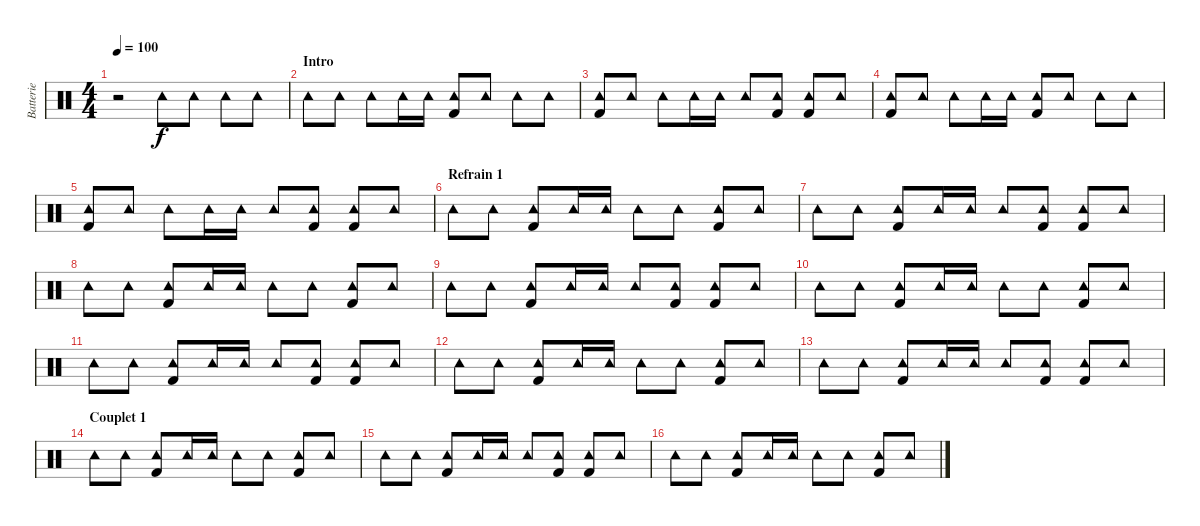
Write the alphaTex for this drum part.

\track ("Batterie" "Batterie") {instrument percussion}
\staff {score}
\articulation defaults
\ts (4 4)
\tempo 100
\clef neutral
\ks c
r.2{dy f} "Tambourine (hit)".8 "Tambourine (hit)".8 "Tambourine (hit)".8 "Tambourine (hit)".8 |
\section ("" "Intro")
"Tambourine (hit)".8 "Tambourine (hit)".8 "Tambourine (hit)".8 "Tambourine (hit)".16 "Tambourine (hit)".16 ("Tambourine (hit)" "Kick (hit) 2").8 "Tambourine (hit)".8 "Tambourine (hit)".8 "Tambourine (hit)".8 |
("Tambourine (hit)" "Kick (hit) 2").8 "Tambourine (hit)".8 "Tambourine (hit)".8 "Tambourine (hit)".16 "Tambourine (hit)".16 "Tambourine (hit)".8 ("Tambourine (hit)" "Kick (hit) 2").8 ("Tambourine (hit)" "Kick (hit) 2").8 "Tambourine (hit)".8 |
("Tambourine (hit)" "Kick (hit) 2").8 "Tambourine (hit)".8 "Tambourine (hit)".8 "Tambourine (hit)".16 "Tambourine (hit)".16 ("Tambourine (hit)" "Kick (hit) 2").8 "Tambourine (hit)".8 "Tambourine (hit)".8 "Tambourine (hit)".8 |
("Tambourine (hit)" "Kick (hit) 2").8 "Tambourine (hit)".8 "Tambourine (hit)".8 "Tambourine (hit)".16 "Tambourine (hit)".16 "Tambourine (hit)".8 ("Tambourine (hit)" "Kick (hit) 2").8 ("Tambourine (hit)" "Kick (hit) 2").8 "Tambourine (hit)".8 |
\section ("" "Refrain 1")
"Tambourine (hit)".8 "Tambourine (hit)".8 ("Tambourine (hit)" "Kick (hit) 2").8 "Tambourine (hit)".16 "Tambourine (hit)".16 "Tambourine (hit)".8 "Tambourine (hit)".8 ("Tambourine (hit)" "Kick (hit) 2").8 "Tambourine (hit)".8 |
"Tambourine (hit)".8 "Tambourine (hit)".8 ("Tambourine (hit)" "Kick (hit) 2").8 "Tambourine (hit)".16 "Tambourine (hit)".16 "Tambourine (hit)".8 ("Tambourine (hit)" "Kick (hit) 2").8 ("Tambourine (hit)" "Kick (hit) 2").8 "Tambourine (hit)".8 |
"Tambourine (hit)".8 "Tambourine (hit)".8 ("Tambourine (hit)" "Kick (hit) 2").8 "Tambourine (hit)".16 "Tambourine (hit)".16 "Tambourine (hit)".8 "Tambourine (hit)".8 ("Tambourine (hit)" "Kick (hit) 2").8 "Tambourine (hit)".8 |
"Tambourine (hit)".8 "Tambourine (hit)".8 ("Tambourine (hit)" "Kick (hit) 2").8 "Tambourine (hit)".16 "Tambourine (hit)".16 "Tambourine (hit)".8 ("Tambourine (hit)" "Kick (hit) 2").8 ("Tambourine (hit)" "Kick (hit) 2").8 "Tambourine (hit)".8 |
"Tambourine (hit)".8 "Tambourine (hit)".8 ("Tambourine (hit)" "Kick (hit) 2").8 "Tambourine (hit)".16 "Tambourine (hit)".16 "Tambourine (hit)".8 "Tambourine (hit)".8 ("Tambourine (hit)" "Kick (hit) 2").8 "Tambourine (hit)".8 |
"Tambourine (hit)".8 "Tambourine (hit)".8 ("Tambourine (hit)" "Kick (hit) 2").8 "Tambourine (hit)".16 "Tambourine (hit)".16 "Tambourine (hit)".8 ("Tambourine (hit)" "Kick (hit) 2").8 ("Tambourine (hit)" "Kick (hit) 2").8 "Tambourine (hit)".8 |
"Tambourine (hit)".8 "Tambourine (hit)".8 ("Tambourine (hit)" "Kick (hit) 2").8 "Tambourine (hit)".16 "Tambourine (hit)".16 "Tambourine (hit)".8 "Tambourine (hit)".8 ("Tambourine (hit)" "Kick (hit) 2").8 "Tambourine (hit)".8 |
"Tambourine (hit)".8 "Tambourine (hit)".8 ("Tambourine (hit)" "Kick (hit) 2").8 "Tambourine (hit)".16 "Tambourine (hit)".16 "Tambourine (hit)".8 ("Tambourine (hit)" "Kick (hit) 2").8 ("Tambourine (hit)" "Kick (hit) 2").8 "Tambourine (hit)".8 |
\section ("" "Couplet 1")
"Tambourine (hit)".8 "Tambourine (hit)".8 ("Tambourine (hit)" "Kick (hit) 2").8 "Tambourine (hit)".16 "Tambourine (hit)".16 "Tambourine (hit)".8 "Tambourine (hit)".8 ("Tambourine (hit)" "Kick (hit) 2").8 "Tambourine (hit)".8 |
"Tambourine (hit)".8 "Tambourine (hit)".8 ("Tambourine (hit)" "Kick (hit) 2").8 "Tambourine (hit)".16 "Tambourine (hit)".16 "Tambourine (hit)".8 ("Tambourine (hit)" "Kick (hit) 2").8 ("Tambourine (hit)" "Kick (hit) 2").8 "Tambourine (hit)".8 |
"Tambourine (hit)".8 "Tambourine (hit)".8 ("Tambourine (hit)" "Kick (hit) 2").8 "Tambourine (hit)".16 "Tambourine (hit)".16 "Tambourine (hit)".8 "Tambourine (hit)".8 ("Tambourine (hit)" "Kick (hit) 2").8 "Tambourine (hit)".8
